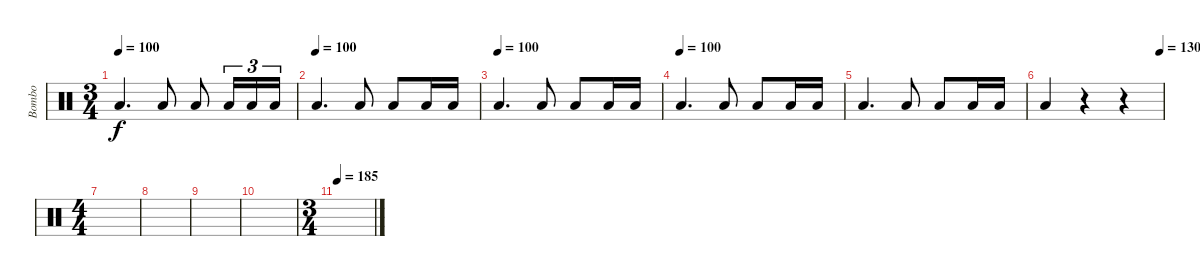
\track ("Bombo" "Bombo") {instrument percussion}
\staff {score}
\articulation defaults
\ts (3 4)
\tempo 100
\clef neutral
\ks c "Low Floor Tom (hit)".4{d dy f} "Low Floor Tom (hit)".8 "Low Floor Tom (hit)".8 "Low Floor Tom (hit)".16{tu (3 2)} "Low Floor Tom (hit)".16{tu (3 2)} "Low Floor Tom (hit)".16{tu (3 2)}
|
\tempo (100)
"Low Floor Tom (hit)".4{d} "Low Floor Tom (hit)".8 "Low Floor Tom (hit)".8 "Low Floor Tom (hit)".16 "Low Floor Tom (hit)".16 |
\tempo (100)
"Low Floor Tom (hit)".4{d} "Low Floor Tom (hit)".8 "Low Floor Tom (hit)".8 "Low Floor Tom (hit)".16 "Low Floor Tom (hit)".16 |
\tempo (100)
"Low Floor Tom (hit)".4{d} "Low Floor Tom (hit)".8 "Low Floor Tom (hit)".8 "Low Floor Tom (hit)".16 "Low Floor Tom (hit)".16 |
"Low Floor Tom (hit)".4{d} "Low Floor Tom (hit)".8 "Low Floor Tom (hit)".8 "Low Floor Tom (hit)".16 "Low Floor Tom (hit)".16 |
\tempo (130 0.9791666666666666)
"Low Floor Tom (hit)".4 r.4 r.4 |
\ts (4 4)
|
|
|
|
\ts (3 4)
\tempo 185
